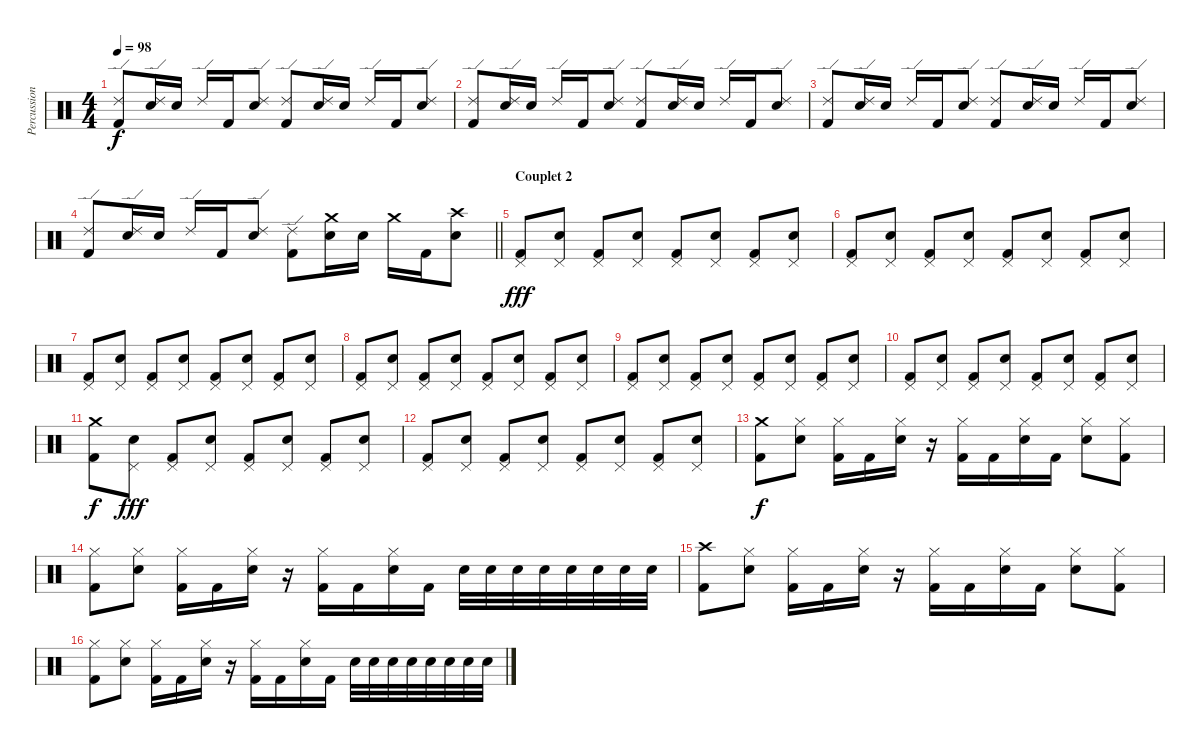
\track ("Percussions" "Percussion") {instrument percussion}
\staff
\articulation defaults
\ts (4 4)
\tempo 98
\clef neutral
\ks c
("Ride (edge) 2" "Kick (hit) 2").8{dy f} ("Ride (edge) 2" "Electric Snare (hit)").16 "Electric Snare (hit)".16 "Ride (edge) 2".16 "Kick (hit) 2".16 ("Ride (edge) 2" "Electric Snare (hit)").8 ("Ride (edge) 2" "Kick (hit) 2").8 ("Ride (edge) 2" "Electric Snare (hit)").16 "Electric Snare (hit)".16 "Ride (edge) 2".16 "Kick (hit) 2".16 ("Ride (edge) 2" "Electric Snare (hit)").8 |
("Ride (edge) 2" "Kick (hit) 2").8 ("Ride (edge) 2" "Electric Snare (hit)").16 "Electric Snare (hit)".16 "Ride (edge) 2".16 "Kick (hit) 2".16 ("Ride (edge) 2" "Electric Snare (hit)").8 ("Ride (edge) 2" "Kick (hit) 2").8 ("Ride (edge) 2" "Electric Snare (hit)").16 "Electric Snare (hit)".16 "Ride (edge) 2".16 "Kick (hit) 2".16 ("Ride (edge) 2" "Electric Snare (hit)").8 |
("Ride (edge) 2" "Kick (hit) 2").8 ("Ride (edge) 2" "Electric Snare (hit)").16 "Electric Snare (hit)".16 "Ride (edge) 2".16 "Kick (hit) 2".16 ("Ride (edge) 2" "Electric Snare (hit)").8 ("Ride (edge) 2" "Kick (hit) 2").8 ("Ride (edge) 2" "Electric Snare (hit)").16 "Electric Snare (hit)".16 "Ride (edge) 2".16 "Kick (hit) 2".16 ("Ride (edge) 2" "Electric Snare (hit)").8 |
\barLineRight lightlight
("Ride (edge) 2" "Kick (hit) 2").8 ("Ride (edge) 2" "Electric Snare (hit)").16 "Electric Snare (hit)".16 "Ride (edge) 2".16 "Kick (hit) 2".16 ("Ride (edge) 2" "Electric Snare (hit)").8 ("Ride (edge) 2" "Kick (hit) 2").8 ("Crash medium (hit)" "Electric Snare (hit)").16 "Electric Snare (hit)".16 "Crash medium (hit)".16 "Kick (hit) 2".16 ("Crash high (hit)" "Electric Snare (hit)").8 |
\section ("" "Couplet 2")
("Pedal Hi-Hat (hit)" "Kick (hit) 2").8{dy fff} ("Pedal Hi-Hat (hit)" "Electric Snare (hit)").8 ("Pedal Hi-Hat (hit)" "Kick (hit) 2").8 ("Pedal Hi-Hat (hit)" "Electric Snare (hit)").8 ("Pedal Hi-Hat (hit)" "Kick (hit) 2").8 ("Pedal Hi-Hat (hit)" "Electric Snare (hit)").8 ("Pedal Hi-Hat (hit)" "Kick (hit) 2").8 ("Pedal Hi-Hat (hit)" "Electric Snare (hit)").8 |
("Pedal Hi-Hat (hit)" "Kick (hit) 2").8 ("Pedal Hi-Hat (hit)" "Electric Snare (hit)").8 ("Pedal Hi-Hat (hit)" "Kick (hit) 2").8 ("Pedal Hi-Hat (hit)" "Electric Snare (hit)").8 ("Pedal Hi-Hat (hit)" "Kick (hit) 2").8 ("Pedal Hi-Hat (hit)" "Electric Snare (hit)").8 ("Pedal Hi-Hat (hit)" "Kick (hit) 2").8 ("Pedal Hi-Hat (hit)" "Electric Snare (hit)").8 |
("Pedal Hi-Hat (hit)" "Kick (hit) 2").8 ("Pedal Hi-Hat (hit)" "Electric Snare (hit)").8 ("Pedal Hi-Hat (hit)" "Kick (hit) 2").8 ("Pedal Hi-Hat (hit)" "Electric Snare (hit)").8 ("Pedal Hi-Hat (hit)" "Kick (hit) 2").8 ("Pedal Hi-Hat (hit)" "Electric Snare (hit)").8 ("Pedal Hi-Hat (hit)" "Kick (hit) 2").8 ("Pedal Hi-Hat (hit)" "Electric Snare (hit)").8 |
("Pedal Hi-Hat (hit)" "Kick (hit) 2").8 ("Pedal Hi-Hat (hit)" "Electric Snare (hit)").8 ("Pedal Hi-Hat (hit)" "Kick (hit) 2").8 ("Pedal Hi-Hat (hit)" "Electric Snare (hit)").8 ("Pedal Hi-Hat (hit)" "Kick (hit) 2").8 ("Pedal Hi-Hat (hit)" "Electric Snare (hit)").8 ("Pedal Hi-Hat (hit)" "Kick (hit) 2").8 ("Pedal Hi-Hat (hit)" "Electric Snare (hit)").8 |
("Pedal Hi-Hat (hit)" "Kick (hit) 2").8 ("Pedal Hi-Hat (hit)" "Electric Snare (hit)").8 ("Pedal Hi-Hat (hit)" "Kick (hit) 2").8 ("Pedal Hi-Hat (hit)" "Electric Snare (hit)").8 ("Pedal Hi-Hat (hit)" "Kick (hit) 2").8 ("Pedal Hi-Hat (hit)" "Electric Snare (hit)").8 ("Pedal Hi-Hat (hit)" "Kick (hit) 2").8 ("Pedal Hi-Hat (hit)" "Electric Snare (hit)").8 |
("Pedal Hi-Hat (hit)" "Kick (hit) 2").8 ("Pedal Hi-Hat (hit)" "Electric Snare (hit)").8 ("Pedal Hi-Hat (hit)" "Kick (hit) 2").8 ("Pedal Hi-Hat (hit)" "Electric Snare (hit)").8 ("Pedal Hi-Hat (hit)" "Kick (hit) 2").8 ("Pedal Hi-Hat (hit)" "Electric Snare (hit)").8 ("Pedal Hi-Hat (hit)" "Kick (hit) 2").8 ("Pedal Hi-Hat (hit)" "Electric Snare (hit)").8 |
("Crash medium (hit)" "Kick (hit) 2").8{dy f} ("Pedal Hi-Hat (hit)" "Electric Snare (hit)").8{dy fff} ("Pedal Hi-Hat (hit)" "Kick (hit) 2").8 ("Pedal Hi-Hat (hit)" "Electric Snare (hit)").8 ("Pedal Hi-Hat (hit)" "Kick (hit) 2").8 ("Pedal Hi-Hat (hit)" "Electric Snare (hit)").8 ("Pedal Hi-Hat (hit)" "Kick (hit) 2").8 ("Pedal Hi-Hat (hit)" "Electric Snare (hit)").8 |
("Pedal Hi-Hat (hit)" "Kick (hit) 2").8 ("Pedal Hi-Hat (hit)" "Electric Snare (hit)").8 ("Pedal Hi-Hat (hit)" "Kick (hit) 2").8 ("Pedal Hi-Hat (hit)" "Electric Snare (hit)").8 ("Pedal Hi-Hat (hit)" "Kick (hit) 2").8 ("Pedal Hi-Hat (hit)" "Electric Snare (hit)").8 ("Pedal Hi-Hat (hit)" "Kick (hit) 2").8 ("Pedal Hi-Hat (hit)" "Electric Snare (hit)").8 |
("Crash medium (hit)" "Kick (hit) 2").8{dy f} ("Hi-Hat (closed)" "Electric Snare (hit)").8 ("Hi-Hat (closed)" "Kick (hit) 2").16 "Kick (hit) 2".16 ("Hi-Hat (closed)" "Electric Snare (hit)").16 r.16 ("Hi-Hat (closed)" "Kick (hit) 2").16 "Kick (hit) 2".16 ("Hi-Hat (closed)" "Electric Snare (hit)").16 "Kick (hit) 2".16 ("Hi-Hat (closed)" "Electric Snare (hit)").8 ("Hi-Hat (closed)" "Kick (hit) 2").8 |
("Hi-Hat (closed)" "Kick (hit) 2").8 ("Hi-Hat (closed)" "Electric Snare (hit)").8 ("Hi-Hat (closed)" "Kick (hit) 2").16 "Kick (hit) 2".16 ("Hi-Hat (closed)" "Electric Snare (hit)").16 r.16 ("Hi-Hat (closed)" "Kick (hit) 2").16 "Kick (hit) 2".16 ("Hi-Hat (closed)" "Electric Snare (hit)").16 "Kick (hit) 2".16 "Electric Snare (hit)".32 "Electric Snare (hit)".32 "Electric Snare (hit)".32 "Electric Snare (hit)".32 "Electric Snare (hit)".32 "Electric Snare (hit)".32 "Electric Snare (hit)".32 "Electric Snare (hit)".32 |
("Crash high (hit)" "Kick (hit) 2").8 ("Hi-Hat (closed)" "Electric Snare (hit)").8 ("Hi-Hat (closed)" "Kick (hit) 2").16 "Kick (hit) 2".16 ("Hi-Hat (closed)" "Electric Snare (hit)").16 r.16 ("Hi-Hat (closed)" "Kick (hit) 2").16 "Kick (hit) 2".16 ("Hi-Hat (closed)" "Electric Snare (hit)").16 "Kick (hit) 2".16 ("Hi-Hat (closed)" "Electric Snare (hit)").8 ("Hi-Hat (closed)" "Kick (hit) 2").8 |
("Hi-Hat (closed)" "Kick (hit) 2").8 ("Hi-Hat (closed)" "Electric Snare (hit)").8 ("Hi-Hat (closed)" "Kick (hit) 2").16 "Kick (hit) 2".16 ("Hi-Hat (closed)" "Electric Snare (hit)").16 r.16 ("Hi-Hat (closed)" "Kick (hit) 2").16 "Kick (hit) 2".16 ("Hi-Hat (closed)" "Electric Snare (hit)").16 "Kick (hit) 2".16 "Electric Snare (hit)".32 "Electric Snare (hit)".32 "Electric Snare (hit)".32 "Electric Snare (hit)".32 "Electric Snare (hit)".32 "Electric Snare (hit)".32 "Electric Snare (hit)".32 "Electric Snare (hit)".32
